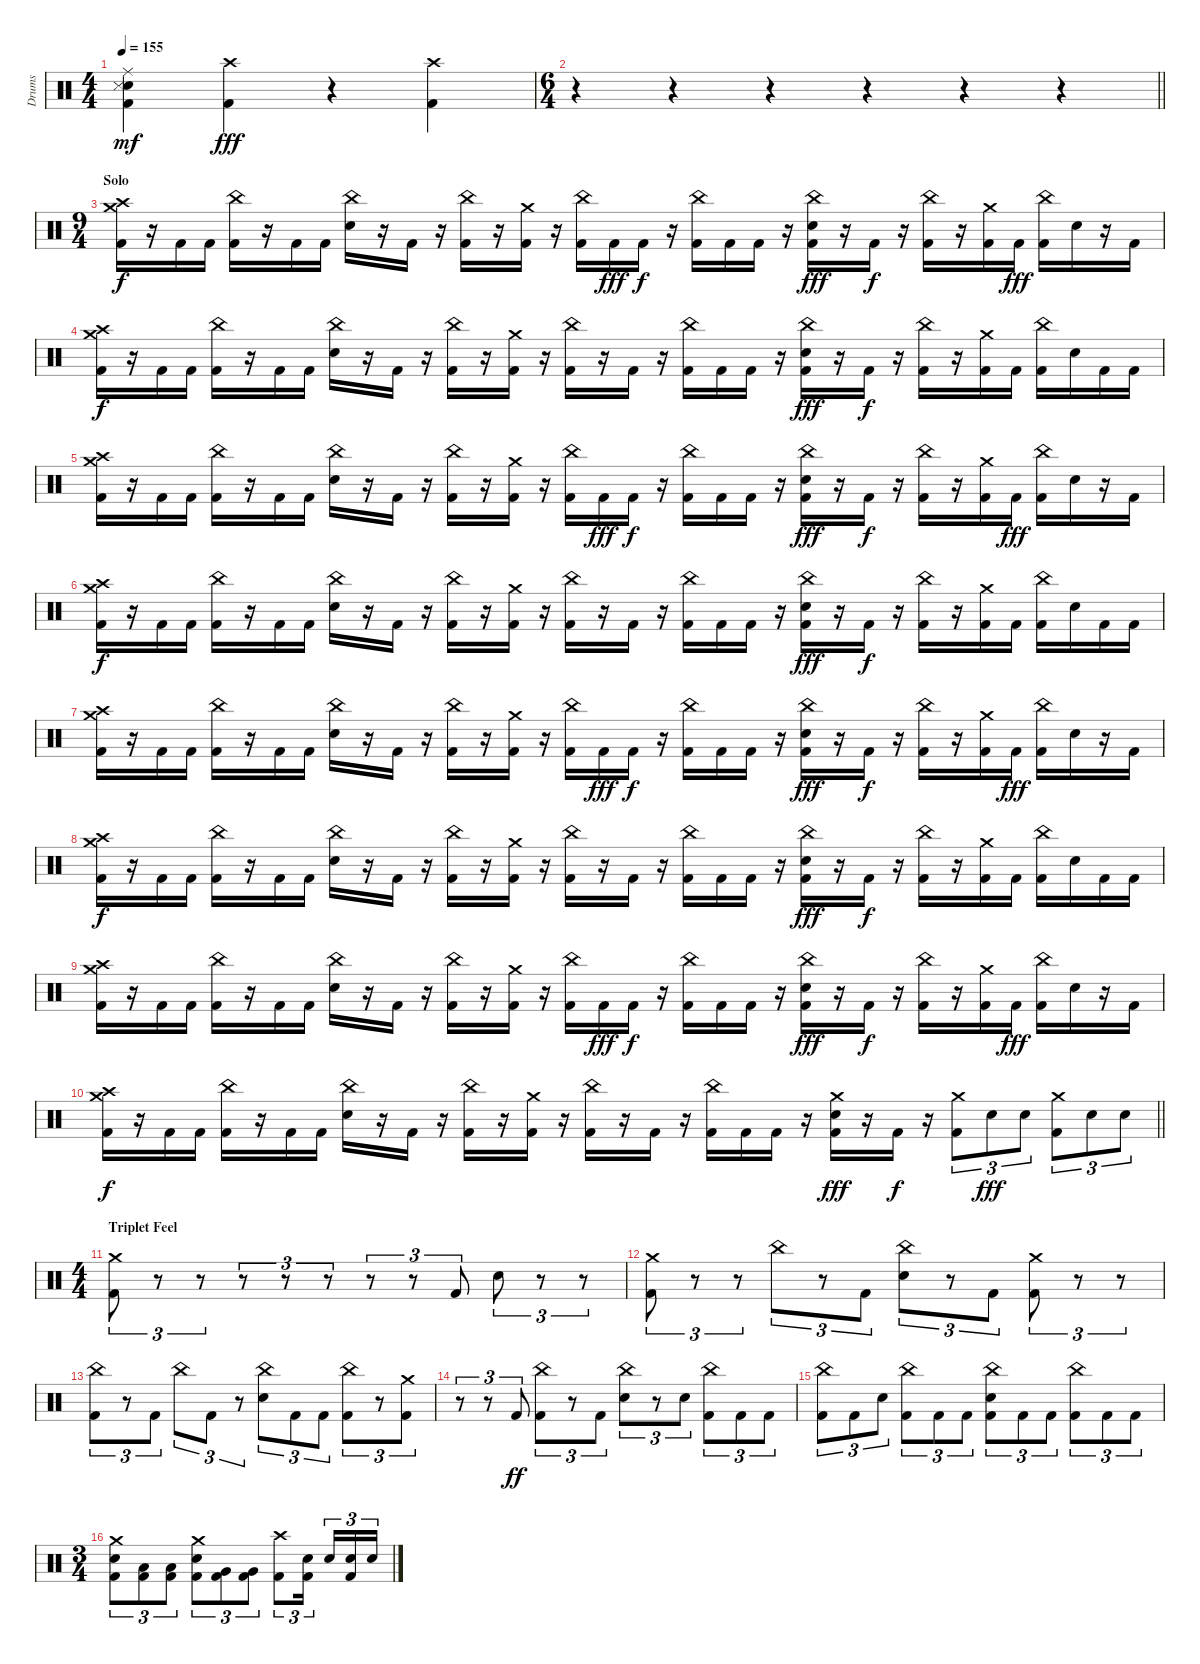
\track ("Drums" "Drums") {instrument percussion}
\staff {score}
\articulation defaults
\ts (4 4)
\tempo 155
\clef neutral
\ks c
("Ride (middle)" "Electric Snare (hit)" "Snare (side stick) 3" "Kick (hit) 2").4{dy mf} ("Crash high (hit)" "Kick (hit) 2").4{dy fff} r.4 ("Crash high (hit)" "Kick (hit) 2").4 |
\ts (6 4)
\barLineRight lightlight
r.4 r.4 r.4 r.4 r.4 r.4 |
\ts (9 4)
\section ("" "Solo")
("Crash high (hit)" "Crash medium (hit)" "Kick (hit) 2").16{dy f} r.16 "Kick (hit) 2".16 "Kick (hit) 2".16 ("China (hit)" "Kick (hit) 2").16 r.16 "Kick (hit) 2".16 "Kick (hit) 2".16 ("China (hit)" "Electric Snare (hit)").16 r.16 "Kick (hit) 2".16 r.16 ("China (hit)" "Kick (hit) 2").16 r.16 ("Crash medium (hit)" "Kick (hit) 2").16 r.16 ("China (hit)" "Kick (hit) 2").16 "Kick (hit) 2".16{dy fff} "Kick (hit) 2".16{dy f} r.16 ("China (hit)" "Kick (hit) 2").16 "Kick (hit) 2".16 "Kick (hit) 2".16 r.16 ("China (hit)" "Electric Snare (hit)" "Kick (hit) 2").16{dy fff} r.16 "Kick (hit) 2".16{dy f} r.16 ("China (hit)" "Kick (hit) 2").16 r.16 ("Crash medium (hit)" "Kick (hit) 2").16 "Kick (hit) 2".16{dy fff} ("China (hit)" "Kick (hit) 2").16 "Electric Snare (hit)".16 r.16 "Kick (hit) 2".16 |
("Crash high (hit)" "Crash medium (hit)" "Kick (hit) 2").16{dy f} r.16 "Kick (hit) 2".16 "Kick (hit) 2".16 ("China (hit)" "Kick (hit) 2").16 r.16 "Kick (hit) 2".16 "Kick (hit) 2".16 ("China (hit)" "Electric Snare (hit)").16 r.16 "Kick (hit) 2".16 r.16 ("China (hit)" "Kick (hit) 2").16 r.16 ("Crash medium (hit)" "Kick (hit) 2").16 r.16 ("China (hit)" "Kick (hit) 2").16 r.16 "Kick (hit) 2".16 r.16 ("China (hit)" "Kick (hit) 2").16 "Kick (hit) 2".16 "Kick (hit) 2".16 r.16 ("China (hit)" "Electric Snare (hit)" "Kick (hit) 2").16{dy fff} r.16 "Kick (hit) 2".16{dy f} r.16 ("China (hit)" "Kick (hit) 2").16 r.16 ("Crash medium (hit)" "Kick (hit) 2").16 "Kick (hit) 2".16 ("China (hit)" "Kick (hit) 2").16 "Electric Snare (hit)".16 "Kick (hit) 2".16 "Kick (hit) 2".16 |
("Crash high (hit)" "Crash medium (hit)" "Kick (hit) 2").16 r.16 "Kick (hit) 2".16 "Kick (hit) 2".16 ("China (hit)" "Kick (hit) 2").16 r.16 "Kick (hit) 2".16 "Kick (hit) 2".16 ("China (hit)" "Electric Snare (hit)").16 r.16 "Kick (hit) 2".16 r.16 ("China (hit)" "Kick (hit) 2").16 r.16 ("Crash medium (hit)" "Kick (hit) 2").16 r.16 ("China (hit)" "Kick (hit) 2").16 "Kick (hit) 2".16{dy fff} "Kick (hit) 2".16{dy f} r.16 ("China (hit)" "Kick (hit) 2").16 "Kick (hit) 2".16 "Kick (hit) 2".16 r.16 ("China (hit)" "Electric Snare (hit)" "Kick (hit) 2").16{dy fff} r.16 "Kick (hit) 2".16{dy f} r.16 ("China (hit)" "Kick (hit) 2").16 r.16 ("Crash medium (hit)" "Kick (hit) 2").16 "Kick (hit) 2".16{dy fff} ("China (hit)" "Kick (hit) 2").16 "Electric Snare (hit)".16 r.16 "Kick (hit) 2".16 |
("Crash high (hit)" "Crash medium (hit)" "Kick (hit) 2").16{dy f} r.16 "Kick (hit) 2".16 "Kick (hit) 2".16 ("China (hit)" "Kick (hit) 2").16 r.16 "Kick (hit) 2".16 "Kick (hit) 2".16 ("China (hit)" "Electric Snare (hit)").16 r.16 "Kick (hit) 2".16 r.16 ("China (hit)" "Kick (hit) 2").16 r.16 ("Crash medium (hit)" "Kick (hit) 2").16 r.16 ("China (hit)" "Kick (hit) 2").16 r.16 "Kick (hit) 2".16 r.16 ("China (hit)" "Kick (hit) 2").16 "Kick (hit) 2".16 "Kick (hit) 2".16 r.16 ("China (hit)" "Electric Snare (hit)" "Kick (hit) 2").16{dy fff} r.16 "Kick (hit) 2".16{dy f} r.16 ("China (hit)" "Kick (hit) 2").16 r.16 ("Crash medium (hit)" "Kick (hit) 2").16 "Kick (hit) 2".16 ("China (hit)" "Kick (hit) 2").16 "Electric Snare (hit)".16 "Kick (hit) 2".16 "Kick (hit) 2".16 |
("Crash high (hit)" "Crash medium (hit)" "Kick (hit) 2").16 r.16 "Kick (hit) 2".16 "Kick (hit) 2".16 ("China (hit)" "Kick (hit) 2").16 r.16 "Kick (hit) 2".16 "Kick (hit) 2".16 ("China (hit)" "Electric Snare (hit)").16 r.16 "Kick (hit) 2".16 r.16 ("China (hit)" "Kick (hit) 2").16 r.16 ("Crash medium (hit)" "Kick (hit) 2").16 r.16 ("China (hit)" "Kick (hit) 2").16 "Kick (hit) 2".16{dy fff} "Kick (hit) 2".16{dy f} r.16 ("China (hit)" "Kick (hit) 2").16 "Kick (hit) 2".16 "Kick (hit) 2".16 r.16 ("China (hit)" "Electric Snare (hit)" "Kick (hit) 2").16{dy fff} r.16 "Kick (hit) 2".16{dy f} r.16 ("China (hit)" "Kick (hit) 2").16 r.16 ("Crash medium (hit)" "Kick (hit) 2").16 "Kick (hit) 2".16{dy fff} ("China (hit)" "Kick (hit) 2").16 "Electric Snare (hit)".16 r.16 "Kick (hit) 2".16 |
("Crash high (hit)" "Crash medium (hit)" "Kick (hit) 2").16{dy f} r.16 "Kick (hit) 2".16 "Kick (hit) 2".16 ("China (hit)" "Kick (hit) 2").16 r.16 "Kick (hit) 2".16 "Kick (hit) 2".16 ("China (hit)" "Electric Snare (hit)").16 r.16 "Kick (hit) 2".16 r.16 ("China (hit)" "Kick (hit) 2").16 r.16 ("Crash medium (hit)" "Kick (hit) 2").16 r.16 ("China (hit)" "Kick (hit) 2").16 r.16 "Kick (hit) 2".16 r.16 ("China (hit)" "Kick (hit) 2").16 "Kick (hit) 2".16 "Kick (hit) 2".16 r.16 ("China (hit)" "Electric Snare (hit)" "Kick (hit) 2").16{dy fff} r.16 "Kick (hit) 2".16{dy f} r.16 ("China (hit)" "Kick (hit) 2").16 r.16 ("Crash medium (hit)" "Kick (hit) 2").16 "Kick (hit) 2".16 ("China (hit)" "Kick (hit) 2").16 "Electric Snare (hit)".16 "Kick (hit) 2".16 "Kick (hit) 2".16 |
("Crash high (hit)" "Crash medium (hit)" "Kick (hit) 2").16 r.16 "Kick (hit) 2".16 "Kick (hit) 2".16 ("China (hit)" "Kick (hit) 2").16 r.16 "Kick (hit) 2".16 "Kick (hit) 2".16 ("China (hit)" "Electric Snare (hit)").16 r.16 "Kick (hit) 2".16 r.16 ("China (hit)" "Kick (hit) 2").16 r.16 ("Crash medium (hit)" "Kick (hit) 2").16 r.16 ("China (hit)" "Kick (hit) 2").16 "Kick (hit) 2".16{dy fff} "Kick (hit) 2".16{dy f} r.16 ("China (hit)" "Kick (hit) 2").16 "Kick (hit) 2".16 "Kick (hit) 2".16 r.16 ("China (hit)" "Electric Snare (hit)" "Kick (hit) 2").16{dy fff} r.16 "Kick (hit) 2".16{dy f} r.16 ("China (hit)" "Kick (hit) 2").16 r.16 ("Crash medium (hit)" "Kick (hit) 2").16 "Kick (hit) 2".16{dy fff} ("China (hit)" "Kick (hit) 2").16 "Electric Snare (hit)".16 r.16 "Kick (hit) 2".16 |
\barLineRight lightlight
("Crash high (hit)" "Crash medium (hit)" "Kick (hit) 2").16{dy f} r.16 "Kick (hit) 2".16 "Kick (hit) 2".16 ("China (hit)" "Kick (hit) 2").16 r.16 "Kick (hit) 2".16 "Kick (hit) 2".16 ("China (hit)" "Electric Snare (hit)").16 r.16 "Kick (hit) 2".16 r.16 ("China (hit)" "Kick (hit) 2").16 r.16 ("Crash medium (hit)" "Kick (hit) 2").16 r.16 ("China (hit)" "Kick (hit) 2").16 r.16 "Kick (hit) 2".16 r.16 ("China (hit)" "Kick (hit) 2").16 "Kick (hit) 2".16 "Kick (hit) 2".16 r.16 ("Crash medium (hit)" "Electric Snare (hit)" "Kick (hit) 2").16{dy fff} r.16 "Kick (hit) 2".16{dy f} r.16 ("Crash medium (hit)" "Kick (hit) 2").8{tu (3 2)} "Electric Snare (hit)".8{tu (3 2) dy fff} "Electric Snare (hit)".8{tu (3 2)} ("Crash medium (hit)" "Kick (hit) 2").8{tu (3 2)} "Electric Snare (hit)".8{tu (3 2)} "Electric Snare (hit)".8{tu (3 2)} |
\ts (4 4)
\section ("" "Triplet Feel")
("Crash medium (hit)" "Kick (hit) 2").8{tu (3 2)} r.8{tu (3 2)} r.8{tu (3 2)} r.8{tu (3 2)} r.8{tu (3 2)} r.8{tu (3 2)} r.8{tu (3 2)} r.8{tu (3 2)} "Kick (hit) 2".8{tu (3 2)} "Electric Snare (hit)".8{tu (3 2)} r.8{tu (3 2)} r.8{tu (3 2)} |
("Crash medium (hit)" "Kick (hit) 2").8{tu (3 2)} r.8{tu (3 2)} r.8{tu (3 2)} "China (hit)".8{tu (3 2)} r.8{tu (3 2)} "Kick (hit) 2".8{tu (3 2)} ("China (hit)" "Electric Snare (hit)").8{tu (3 2)} r.8{tu (3 2)} "Kick (hit) 2".8{tu (3 2)} ("Crash medium (hit)" "Kick (hit) 2").8{tu (3 2)} r.8{tu (3 2)} r.8{tu (3 2)} |
("China (hit)" "Kick (hit) 2").8{tu (3 2)} r.8{tu (3 2)} "Kick (hit) 2".8{tu (3 2)} "China (hit)".8{tu (3 2)} "Kick (hit) 2".8{tu (3 2)} r.8{tu (3 2)} ("China (hit)" "Electric Snare (hit)").8{tu (3 2)} "Kick (hit) 2".8{tu (3 2)} "Kick (hit) 2".8{tu (3 2)} ("China (hit)" "Kick (hit) 2").8{tu (3 2)} r.8{tu (3 2)} ("Crash medium (hit)" "Kick (hit) 2").8{tu (3 2)} |
r.8{tu (3 2)} r.8{tu (3 2)} "Kick (hit) 2".8{tu (3 2) dy ff} ("China (hit)" "Kick (hit) 2").8{tu (3 2)} r.8{tu (3 2)} "Kick (hit) 2".8{tu (3 2)} ("China (hit)" "Electric Snare (hit)").8{tu (3 2)} r.8{tu (3 2)} "Electric Snare (hit)".8{tu (3 2)} ("China (hit)" "Kick (hit) 2").8{tu (3 2)} "Kick (hit) 2".8{tu (3 2)} "Kick (hit) 2".8{tu (3 2)} |
("China (hit)" "Kick (hit) 2").8{tu (3 2)} "Kick (hit) 2".8{tu (3 2)} "Electric Snare (hit)".8{tu (3 2)} ("China (hit)" "Kick (hit) 2").8{tu (3 2)} "Kick (hit) 2".8{tu (3 2)} "Kick (hit) 2".8{tu (3 2)} ("China (hit)" "Electric Snare (hit)" "Kick (hit) 2").8{tu (3 2)} "Kick (hit) 2".8{tu (3 2)} "Kick (hit) 2".8{tu (3 2)} ("China (hit)" "Kick (hit) 2").8{tu (3 2)} "Kick (hit) 2".8{tu (3 2)} "Kick (hit) 2".8{tu (3 2)} |
\ts (3 4)
("Crash medium (hit)" "Electric Snare (hit)" "Kick (hit) 2").8{tu (3 2)} ("Low Tom (hit)" "Kick (hit) 2").8{tu (3 2)} ("Low Tom (hit)" "Kick (hit) 2").8{tu (3 2)} ("Crash medium (hit)" "Electric Snare (hit)" "Kick (hit) 2").8{tu (3 2)} ("Very Low Tom (hit)" "Kick (hit) 2").8{tu (3 2)} ("Very Low Tom (hit)" "Kick (hit) 2").8{tu (3 2)} ("Crash high (hit)" "Kick (hit) 2").8{tu (3 2)} ("Electric Snare (hit)" "Kick (hit) 2").16{tu (3 2) beam splitsecondary} "Electric Snare (hit)".16{tu (3 2)} ("Electric Snare (hit)" "Kick (hit) 2").16{tu (3 2)} "Electric Snare (hit)".16{tu (3 2)}
